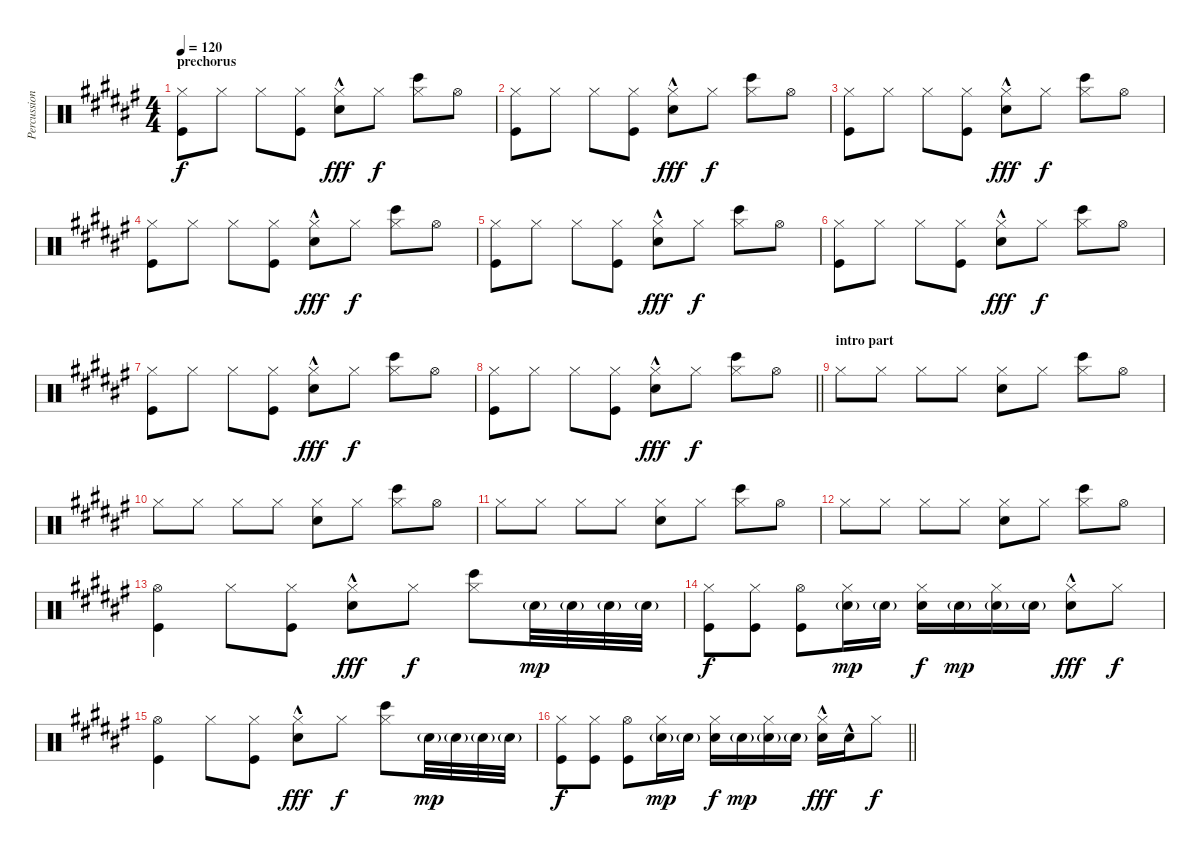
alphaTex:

\track ("Percussion" "Percussion") {instrument percussion}
\staff {score}
\articulation defaults
\ts (4 4)
\section ("" "prechorus")
\tempo 120
\clef neutral
\ks f#
("Kick (hit)" "Hi-Hat (closed)").8{dy f} "Hi-Hat (closed)".8 "Hi-Hat (closed)".8 ("Kick (hit)" "Hi-Hat (closed)").8 ("Electric Snare (hit)"{hac} "Hi-Hat (closed)").8{dy fff} "Hi-Hat (closed)".8{dy f} ("Bongo High (hit)" "Hi-Hat (closed)").8 "Hi-Hat (open)".8 |
("Kick (hit)" "Hi-Hat (closed)").8 "Hi-Hat (closed)".8 "Hi-Hat (closed)".8 ("Kick (hit)" "Hi-Hat (closed)").8 ("Electric Snare (hit)"{hac} "Hi-Hat (closed)").8{dy fff} "Hi-Hat (closed)".8{dy f} ("Bongo High (hit)" "Hi-Hat (closed)").8 "Hi-Hat (open)".8 |
("Kick (hit)" "Hi-Hat (closed)").8 "Hi-Hat (closed)".8 "Hi-Hat (closed)".8 ("Kick (hit)" "Hi-Hat (closed)").8 ("Electric Snare (hit)"{hac} "Hi-Hat (closed)").8{dy fff} "Hi-Hat (closed)".8{dy f} ("Bongo High (hit)" "Hi-Hat (closed)").8 "Hi-Hat (open)".8 |
("Kick (hit)" "Hi-Hat (closed)").8 "Hi-Hat (closed)".8 "Hi-Hat (closed)".8 ("Kick (hit)" "Hi-Hat (closed)").8 ("Electric Snare (hit)"{hac} "Hi-Hat (closed)").8{dy fff} "Hi-Hat (closed)".8{dy f} ("Bongo High (hit)" "Hi-Hat (closed)").8 "Hi-Hat (open)".8 |
("Kick (hit)" "Hi-Hat (closed)").8 "Hi-Hat (closed)".8 "Hi-Hat (closed)".8 ("Kick (hit)" "Hi-Hat (closed)").8 ("Electric Snare (hit)"{hac} "Hi-Hat (closed)").8{dy fff} "Hi-Hat (closed)".8{dy f} ("Bongo High (hit)" "Hi-Hat (closed)").8 "Hi-Hat (open)".8 |
("Kick (hit)" "Hi-Hat (closed)").8 "Hi-Hat (closed)".8 "Hi-Hat (closed)".8 ("Kick (hit)" "Hi-Hat (closed)").8 ("Electric Snare (hit)"{hac} "Hi-Hat (closed)").8{dy fff} "Hi-Hat (closed)".8{dy f} ("Bongo High (hit)" "Hi-Hat (closed)").8 "Hi-Hat (open)".8 |
("Kick (hit)" "Hi-Hat (closed)").8 "Hi-Hat (closed)".8 "Hi-Hat (closed)".8 ("Kick (hit)" "Hi-Hat (closed)").8 ("Electric Snare (hit)"{hac} "Hi-Hat (closed)").8{dy fff} "Hi-Hat (closed)".8{dy f} ("Bongo High (hit)" "Hi-Hat (closed)").8 "Hi-Hat (open)".8 |
\barLineRight lightlight
("Kick (hit)" "Hi-Hat (closed)").8 "Hi-Hat (closed)".8 "Hi-Hat (closed)".8 ("Kick (hit)" "Hi-Hat (closed)").8 ("Electric Snare (hit)"{hac} "Hi-Hat (closed)").8{dy fff} "Hi-Hat (closed)".8{dy f} ("Bongo High (hit)" "Hi-Hat (closed)").8 "Hi-Hat (open)".8 |
\section ("" "intro part")
"Hi-Hat (closed)".8 "Hi-Hat (closed)".8 "Hi-Hat (closed)".8 "Hi-Hat (closed)".8 ("Hand Clap (hit)" "Hi-Hat (closed)").8 "Hi-Hat (closed)".8 ("Bongo High (hit)" "Hi-Hat (closed)").8 "Hi-Hat (open)".8 |
"Hi-Hat (closed)".8 "Hi-Hat (closed)".8 "Hi-Hat (closed)".8 "Hi-Hat (closed)".8 ("Hand Clap (hit)" "Hi-Hat (closed)").8 "Hi-Hat (closed)".8 ("Bongo High (hit)" "Hi-Hat (closed)").8 "Hi-Hat (open)".8 |
"Hi-Hat (closed)".8 "Hi-Hat (closed)".8 "Hi-Hat (closed)".8 "Hi-Hat (closed)".8 ("Hand Clap (hit)" "Hi-Hat (closed)").8 "Hi-Hat (closed)".8 ("Bongo High (hit)" "Hi-Hat (closed)").8 "Hi-Hat (open)".8 |
"Hi-Hat (closed)".8 "Hi-Hat (closed)".8 "Hi-Hat (closed)".8 "Hi-Hat (closed)".8 ("Hand Clap (hit)" "Hi-Hat (closed)").8 "Hi-Hat (closed)".8 ("Bongo High (hit)" "Hi-Hat (closed)").8 "Hi-Hat (open)".8 |
("Kick (hit)" "Hi-Hat (open)").4 "Hi-Hat (closed)".8 ("Hi-Hat (closed)" "Kick (hit)").8 ("Electric Snare (hit)"{hac} "Hi-Hat (closed)").8{dy fff} "Hi-Hat (closed)".8{dy f} ("Bongo High (hit)" "Hi-Hat (closed)").8 "Snare (hit) 2"{g}.32{dy mp} "Snare (hit) 2"{g}.32 "Snare (hit) 2"{g}.32 "Snare (hit) 2"{g}.32 |
("Kick (hit)" "Hi-Hat (closed)").8{dy f} ("Hi-Hat (closed)" "Kick (hit)").8 ("Kick (hit)" "Hi-Hat (open)").8 ("Hi-Hat (closed)" "Snare (hit) 2"{g}).16{dy mp} "Snare (hit) 2"{g}.16 ("Hi-Hat (closed)" "Snare (hit) 2").16{dy f} "Snare (hit) 2"{g}.16{dy mp} ("Hi-Hat (closed)" "Snare (hit) 2"{g}).16 "Snare (hit) 2"{g}.16 ("Hi-Hat (closed)" "Electric Snare (hit)"{hac}).8{dy fff} "Hi-Hat (closed)".8{dy f} |
("Kick (hit)" "Hi-Hat (open)").4 "Hi-Hat (closed)".8 ("Hi-Hat (closed)" "Kick (hit)").8 ("Electric Snare (hit)"{hac} "Hi-Hat (closed)").8{dy fff} "Hi-Hat (closed)".8{dy f} ("Bongo High (hit)" "Hi-Hat (closed)").8 "Snare (hit) 2"{g}.32{dy mp} "Snare (hit) 2"{g}.32 "Snare (hit) 2"{g}.32 "Snare (hit) 2"{g}.32 |
\barLineRight lightlight
("Kick (hit)" "Hi-Hat (closed)").8{dy f} ("Hi-Hat (closed)" "Kick (hit)").8 ("Kick (hit)" "Hi-Hat (open)").8 ("Hi-Hat (closed)" "Snare (hit) 2"{g}).16{dy mp} "Snare (hit) 2"{g}.16 ("Hi-Hat (closed)" "Snare (hit) 2").16{dy f} "Snare (hit) 2"{g}.16{dy mp} ("Hi-Hat (closed)" "Snare (hit) 2"{g}).16 "Snare (hit) 2"{g}.16 ("Hi-Hat (closed)" "Electric Snare (hit)"{hac}).16{dy fff} "Electric Snare (hit)"{hac}.16 "Hi-Hat (closed)".8{dy f}
